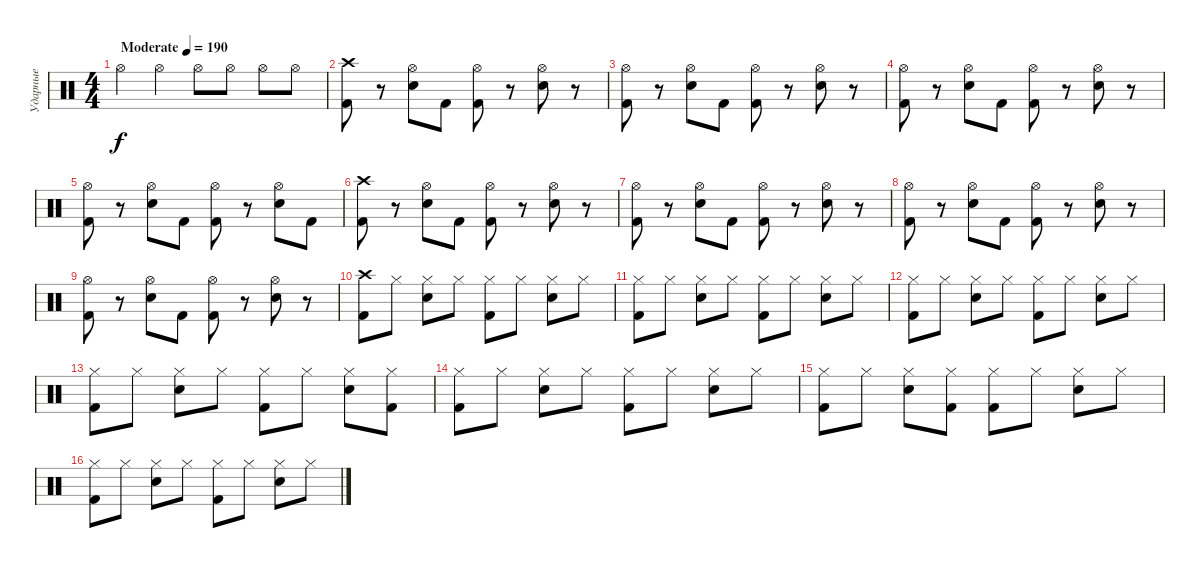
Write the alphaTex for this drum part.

\track ("Ударные" "Ударные") {instrument percussion}
\staff {score}
\articulation defaults
\ts (4 4)
\tempo (190 "Moderate")
\clef neutral
\ks c "Hi-Hat (open)".4{dy f} "Hi-Hat (open)".4 "Hi-Hat (open)".8 "Hi-Hat (open)".8 "Hi-Hat (open)".8 "Hi-Hat (open)".8
|
("Crash high (hit)" "Kick (hit) 2").8 r.8 ("Hi-Hat (open)" "Electric Snare (hit)").8 "Kick (hit) 2".8 ("Hi-Hat (open)" "Kick (hit) 2").8 r.8 ("Hi-Hat (open)" "Electric Snare (hit)").8 r.8 |
("Hi-Hat (open)" "Kick (hit) 2").8 r.8 ("Hi-Hat (open)" "Electric Snare (hit)").8 "Kick (hit) 2".8 ("Hi-Hat (open)" "Kick (hit) 2").8 r.8 ("Hi-Hat (open)" "Electric Snare (hit)").8 r.8 |
("Hi-Hat (open)" "Kick (hit) 2").8 r.8 ("Hi-Hat (open)" "Electric Snare (hit)").8 "Kick (hit) 2".8 ("Hi-Hat (open)" "Kick (hit) 2").8 r.8 ("Hi-Hat (open)" "Electric Snare (hit)").8 r.8 |
("Hi-Hat (open)" "Kick (hit) 2").8 r.8 ("Hi-Hat (open)" "Electric Snare (hit)").8 "Kick (hit) 2".8 ("Hi-Hat (open)" "Kick (hit) 2").8 r.8 ("Hi-Hat (open)" "Electric Snare (hit)").8 "Kick (hit) 2".8 |
("Crash high (hit)" "Kick (hit) 2").8 r.8 ("Hi-Hat (open)" "Electric Snare (hit)").8 "Kick (hit) 2".8 ("Hi-Hat (open)" "Kick (hit) 2").8 r.8 ("Hi-Hat (open)" "Electric Snare (hit)").8 r.8 |
("Hi-Hat (open)" "Kick (hit) 2").8 r.8 ("Hi-Hat (open)" "Electric Snare (hit)").8 "Kick (hit) 2".8 ("Hi-Hat (open)" "Kick (hit) 2").8 r.8 ("Hi-Hat (open)" "Electric Snare (hit)").8 r.8 |
("Hi-Hat (open)" "Kick (hit) 2").8 r.8 ("Hi-Hat (open)" "Electric Snare (hit)").8 "Kick (hit) 2".8 ("Hi-Hat (open)" "Kick (hit) 2").8 r.8 ("Hi-Hat (open)" "Electric Snare (hit)").8 r.8 |
("Hi-Hat (open)" "Kick (hit) 2").8 r.8 ("Hi-Hat (open)" "Electric Snare (hit)").8 "Kick (hit) 2".8 ("Hi-Hat (open)" "Kick (hit) 2").8 r.8 ("Hi-Hat (open)" "Electric Snare (hit)").8 r.8 |
("Crash high (hit)" "Kick (hit) 2").8 "Hi-Hat (closed)".8 ("Hi-Hat (closed)" "Electric Snare (hit)").8 "Hi-Hat (closed)".8 ("Hi-Hat (closed)" "Kick (hit) 2").8 "Hi-Hat (closed)".8 ("Hi-Hat (closed)" "Electric Snare (hit)").8 "Hi-Hat (closed)".8 |
("Hi-Hat (closed)" "Kick (hit) 2").8 "Hi-Hat (closed)".8 ("Hi-Hat (closed)" "Electric Snare (hit)").8 "Hi-Hat (closed)".8 ("Hi-Hat (closed)" "Kick (hit) 2").8 "Hi-Hat (closed)".8 ("Hi-Hat (closed)" "Electric Snare (hit)").8 "Hi-Hat (closed)".8 |
("Hi-Hat (closed)" "Kick (hit) 2").8 "Hi-Hat (closed)".8 ("Hi-Hat (closed)" "Electric Snare (hit)").8 "Hi-Hat (closed)".8 ("Hi-Hat (closed)" "Kick (hit) 2").8 "Hi-Hat (closed)".8 ("Hi-Hat (closed)" "Electric Snare (hit)").8 "Hi-Hat (closed)".8 |
("Hi-Hat (closed)" "Kick (hit) 2").8 "Hi-Hat (closed)".8 ("Hi-Hat (closed)" "Electric Snare (hit)").8 "Hi-Hat (closed)".8 ("Hi-Hat (closed)" "Kick (hit) 2").8 "Hi-Hat (closed)".8 ("Hi-Hat (closed)" "Electric Snare (hit)").8 ("Hi-Hat (closed)" "Kick (hit) 2").8 |
("Hi-Hat (closed)" "Kick (hit) 2").8 "Hi-Hat (closed)".8 ("Hi-Hat (closed)" "Electric Snare (hit)").8 "Hi-Hat (closed)".8 ("Hi-Hat (closed)" "Kick (hit) 2").8 "Hi-Hat (closed)".8 ("Hi-Hat (closed)" "Electric Snare (hit)").8 "Hi-Hat (closed)".8 |
("Hi-Hat (closed)" "Kick (hit) 2").8 "Hi-Hat (closed)".8 ("Hi-Hat (closed)" "Electric Snare (hit)").8 ("Hi-Hat (closed)" "Kick (hit) 2").8 ("Hi-Hat (closed)" "Kick (hit) 2").8 "Hi-Hat (closed)".8 ("Hi-Hat (closed)" "Electric Snare (hit)").8 "Hi-Hat (closed)".8 |
("Hi-Hat (closed)" "Kick (hit) 2").8 "Hi-Hat (closed)".8 ("Hi-Hat (closed)" "Electric Snare (hit)").8 "Hi-Hat (closed)".8 ("Hi-Hat (closed)" "Kick (hit) 2").8 "Hi-Hat (closed)".8 ("Hi-Hat (closed)" "Electric Snare (hit)").8 "Hi-Hat (closed)".8
